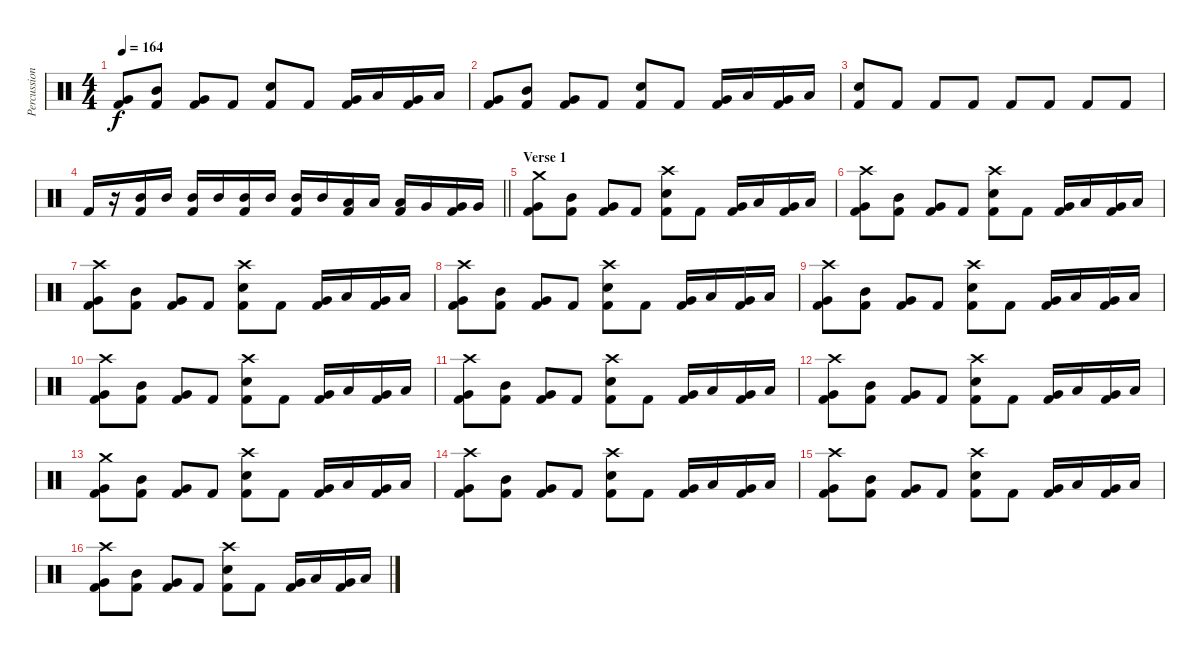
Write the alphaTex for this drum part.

\track ("Percussions" "Percussion") {instrument percussion}
\staff {score}
\articulation defaults
\ts (4 4)
\tempo 164
\clef neutral
\ks c
("Very Low Tom (hit)" "Kick (hit) 2").8{dy f} ("Mid Tom (hit)" "Kick (hit) 2").8 ("Very Low Tom (hit)" "Kick (hit) 2").8 "Kick (hit) 2".8 ("Snare (hit) 2" "Kick (hit) 2").8 "Kick (hit) 2".8 ("Very Low Tom (hit)" "Kick (hit) 2").16 "Low Tom (hit)".16 ("Very Low Tom (hit)" "Kick (hit) 2").16 "Low Tom (hit)".16 |
("Very Low Tom (hit)" "Kick (hit) 2").8 ("Mid Tom (hit)" "Kick (hit) 2").8 ("Very Low Tom (hit)" "Kick (hit) 2").8 "Kick (hit) 2".8 ("Snare (hit) 2" "Kick (hit) 2").8 "Kick (hit) 2".8 ("Very Low Tom (hit)" "Kick (hit) 2").16 "Low Tom (hit)".16 ("Very Low Tom (hit)" "Kick (hit) 2").16 "Low Tom (hit)".16 |
("Snare (hit) 2" "Kick (hit) 2").8 "Kick (hit) 2".8 "Kick (hit) 2".8 "Kick (hit) 2".8 "Kick (hit) 2".8 "Kick (hit) 2".8 "Kick (hit) 2".8 "Kick (hit) 2".8 |
\barLineRight lightlight "Kick (hit) 2".16
r.16 ("Mid Tom (hit)" "Kick (hit) 2").16 "Mid Tom (hit)".16 ("Mid Tom (hit)" "Kick (hit) 2").16 "Mid Tom (hit)".16 ("Mid Tom (hit)" "Kick (hit) 2").16 "Mid Tom (hit)".16 ("Mid Tom (hit)" "Kick (hit) 2").16 "Mid Tom (hit)".16 ("Low Tom (hit)" "Kick (hit) 2").16 "Low Tom (hit)".16 ("Low Tom (hit)" "Kick (hit) 2").16 "Very Low Tom (hit)".16 ("Very Low Tom (hit)" "Kick (hit) 2").16 "Very Low Tom (hit)".16 |
\section ("" "Verse 1")
("Crash medium (hit)" "Very Low Tom (hit)" "Kick (hit) 2").8 ("Mid Tom (hit)" "Kick (hit) 2").8 ("Very Low Tom (hit)" "Kick (hit) 2").8 "Kick (hit) 2".8 ("Crash high (hit)" "Snare (hit) 2" "Kick (hit) 2").8 "Kick (hit) 2".8 ("Very Low Tom (hit)" "Kick (hit) 2").16 "Low Tom (hit)".16 ("Very Low Tom (hit)" "Kick (hit) 2").16 "Low Tom (hit)".16 |
("Crash high (hit)" "Very Low Tom (hit)" "Kick (hit) 2").8 ("Mid Tom (hit)" "Kick (hit) 2").8 ("Very Low Tom (hit)" "Kick (hit) 2").8 "Kick (hit) 2".8 ("Crash high (hit)" "Snare (hit) 2" "Kick (hit) 2").8 "Kick (hit) 2".8 ("Very Low Tom (hit)" "Kick (hit) 2").16 "Low Tom (hit)".16 ("Very Low Tom (hit)" "Kick (hit) 2").16 "Low Tom (hit)".16 |
("Crash high (hit)" "Very Low Tom (hit)" "Kick (hit) 2").8 ("Mid Tom (hit)" "Kick (hit) 2").8 ("Very Low Tom (hit)" "Kick (hit) 2").8 "Kick (hit) 2".8 ("Crash high (hit)" "Snare (hit) 2" "Kick (hit) 2").8 "Kick (hit) 2".8 ("Very Low Tom (hit)" "Kick (hit) 2").16 "Low Tom (hit)".16 ("Very Low Tom (hit)" "Kick (hit) 2").16 "Low Tom (hit)".16 |
("Crash high (hit)" "Very Low Tom (hit)" "Kick (hit) 2").8 ("Mid Tom (hit)" "Kick (hit) 2").8 ("Very Low Tom (hit)" "Kick (hit) 2").8 "Kick (hit) 2".8 ("Crash high (hit)" "Snare (hit) 2" "Kick (hit) 2").8 "Kick (hit) 2".8 ("Very Low Tom (hit)" "Kick (hit) 2").16 "Low Tom (hit)".16 ("Very Low Tom (hit)" "Kick (hit) 2").16 "Low Tom (hit)".16 |
("Crash high (hit)" "Very Low Tom (hit)" "Kick (hit) 2").8 ("Mid Tom (hit)" "Kick (hit) 2").8 ("Very Low Tom (hit)" "Kick (hit) 2").8 "Kick (hit) 2".8 ("Crash high (hit)" "Snare (hit) 2" "Kick (hit) 2").8 "Kick (hit) 2".8 ("Very Low Tom (hit)" "Kick (hit) 2").16 "Low Tom (hit)".16 ("Very Low Tom (hit)" "Kick (hit) 2").16 "Low Tom (hit)".16 |
("Crash high (hit)" "Very Low Tom (hit)" "Kick (hit) 2").8 ("Mid Tom (hit)" "Kick (hit) 2").8 ("Very Low Tom (hit)" "Kick (hit) 2").8 "Kick (hit) 2".8 ("Crash high (hit)" "Snare (hit) 2" "Kick (hit) 2").8 "Kick (hit) 2".8 ("Very Low Tom (hit)" "Kick (hit) 2").16 "Low Tom (hit)".16 ("Very Low Tom (hit)" "Kick (hit) 2").16 "Low Tom (hit)".16 |
("Crash high (hit)" "Very Low Tom (hit)" "Kick (hit) 2").8 ("Mid Tom (hit)" "Kick (hit) 2").8 ("Very Low Tom (hit)" "Kick (hit) 2").8 "Kick (hit) 2".8 ("Crash high (hit)" "Snare (hit) 2" "Kick (hit) 2").8 "Kick (hit) 2".8 ("Very Low Tom (hit)" "Kick (hit) 2").16 "Low Tom (hit)".16 ("Very Low Tom (hit)" "Kick (hit) 2").16 "Low Tom (hit)".16 |
("Crash high (hit)" "Very Low Tom (hit)" "Kick (hit) 2").8 ("Mid Tom (hit)" "Kick (hit) 2").8 ("Very Low Tom (hit)" "Kick (hit) 2").8 "Kick (hit) 2".8 ("Crash high (hit)" "Snare (hit) 2" "Kick (hit) 2").8 "Kick (hit) 2".8 ("Very Low Tom (hit)" "Kick (hit) 2").16 "Low Tom (hit)".16 ("Very Low Tom (hit)" "Kick (hit) 2").16 "Low Tom (hit)".16 |
("Crash medium (hit)" "Very Low Tom (hit)" "Kick (hit) 2").8 ("Mid Tom (hit)" "Kick (hit) 2").8 ("Very Low Tom (hit)" "Kick (hit) 2").8 "Kick (hit) 2".8 ("Crash high (hit)" "Snare (hit) 2" "Kick (hit) 2").8 "Kick (hit) 2".8 ("Very Low Tom (hit)" "Kick (hit) 2").16 "Low Tom (hit)".16 ("Very Low Tom (hit)" "Kick (hit) 2").16 "Low Tom (hit)".16 |
("Crash high (hit)" "Very Low Tom (hit)" "Kick (hit) 2").8 ("Mid Tom (hit)" "Kick (hit) 2").8 ("Very Low Tom (hit)" "Kick (hit) 2").8 "Kick (hit) 2".8 ("Crash high (hit)" "Snare (hit) 2" "Kick (hit) 2").8 "Kick (hit) 2".8 ("Very Low Tom (hit)" "Kick (hit) 2").16 "Low Tom (hit)".16 ("Very Low Tom (hit)" "Kick (hit) 2").16 "Low Tom (hit)".16 |
("Crash high (hit)" "Very Low Tom (hit)" "Kick (hit) 2").8 ("Mid Tom (hit)" "Kick (hit) 2").8 ("Very Low Tom (hit)" "Kick (hit) 2").8 "Kick (hit) 2".8 ("Crash high (hit)" "Snare (hit) 2" "Kick (hit) 2").8 "Kick (hit) 2".8 ("Very Low Tom (hit)" "Kick (hit) 2").16 "Low Tom (hit)".16 ("Very Low Tom (hit)" "Kick (hit) 2").16 "Low Tom (hit)".16 |
("Crash high (hit)" "Very Low Tom (hit)" "Kick (hit) 2").8 ("Mid Tom (hit)" "Kick (hit) 2").8 ("Very Low Tom (hit)" "Kick (hit) 2").8 "Kick (hit) 2".8 ("Crash high (hit)" "Snare (hit) 2" "Kick (hit) 2").8 "Kick (hit) 2".8 ("Very Low Tom (hit)" "Kick (hit) 2").16 "Low Tom (hit)".16 ("Very Low Tom (hit)" "Kick (hit) 2").16 "Low Tom (hit)".16
